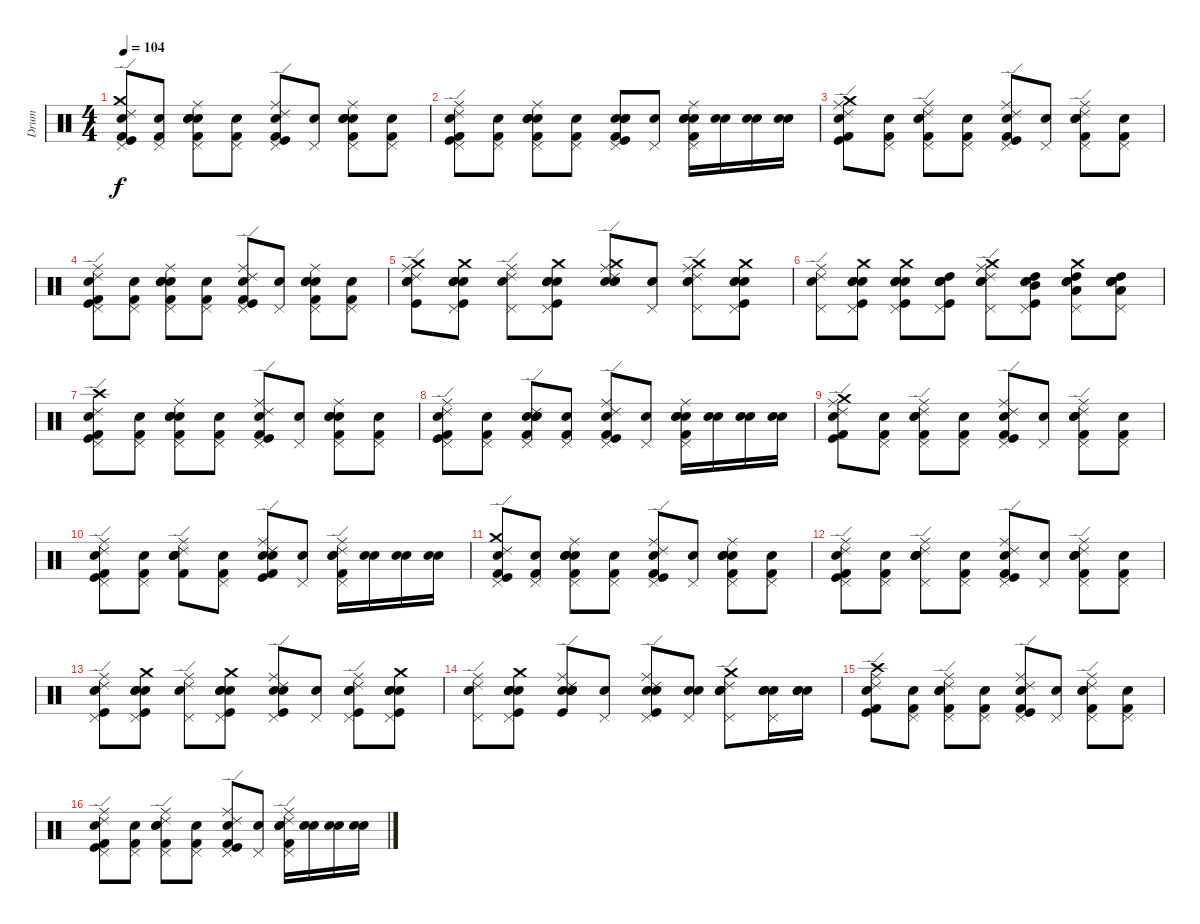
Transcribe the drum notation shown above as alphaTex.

\track ("Drum" "Drum") {instrument percussion}
\staff {score}
\articulation defaults
\ts (4 4)
\tempo 104
\clef neutral
\ks c
("Snare (hit)" "Kick (hit)" "Pedal Hi-Hat (hit)" "Crash medium (hit)" "Ride (edge) 2" "Kick (hit) 2").8{dy f} ("Snare (hit)" "Pedal Hi-Hat (hit)" "Kick (hit) 2").8 ("Snare (hit)" "Kick (hit) 2" "Electric Snare (hit)" "Snare (hit) 2" "Pedal Hi-Hat (hit)" "Ride (middle)").8 ("Snare (hit)" "Pedal Hi-Hat (hit)" "Kick (hit) 2").8 ("Snare (hit)" "Kick (hit)" "Pedal Hi-Hat (hit)" "Ride (edge) 2" "Ride (middle)" "Kick (hit) 2").8 ("Snare (hit)" "Pedal Hi-Hat (hit)").8 ("Snare (hit)" "Kick (hit) 2" "Snare (hit) 2" "Electric Snare (hit)" "Pedal Hi-Hat (hit)" "Ride (middle)").8 ("Snare (hit)" "Pedal Hi-Hat (hit)" "Kick (hit) 2").8 |
("Snare (hit)" "Pedal Hi-Hat (hit)" "Kick (hit)" "Ride (edge) 2" "Ride (middle)" "Kick (hit) 2").8 ("Snare (hit)" "Pedal Hi-Hat (hit)" "Kick (hit) 2").8 ("Snare (hit)" "Pedal Hi-Hat (hit)" "Snare (hit) 2" "Electric Snare (hit)" "Kick (hit) 2" "Ride (middle)").8 ("Snare (hit)" "Pedal Hi-Hat (hit)" "Kick (hit) 2").8 ("Snare (hit)" "Snare (hit) 2" "Electric Snare (hit)" "Pedal Hi-Hat (hit)" "Kick (hit)" "Kick (hit) 2").8 ("Snare (hit)" "Pedal Hi-Hat (hit)").8 ("Snare (hit)" "Pedal Hi-Hat (hit)" "Electric Snare (hit)" "Snare (hit) 2" "Kick (hit) 2" "Ride (middle)").16 ("Snare (hit)" "Snare (hit) 2").16 ("Snare (hit)" "Snare (hit) 2").16 ("Snare (hit)" "Snare (hit) 2").16 |
("Snare (hit)" "Kick (hit) 2" "Ride (middle)" "Ride (edge) 2" "Crash medium (hit)" "Kick (hit)").8 ("Snare (hit)" "Kick (hit) 2" "Pedal Hi-Hat (hit)").8 ("Snare (hit)" "Ride (middle)" "Ride (edge) 2" "Pedal Hi-Hat (hit)" "Snare (hit) 2" "Kick (hit) 2").8 ("Snare (hit)" "Kick (hit) 2" "Pedal Hi-Hat (hit)").8 ("Snare (hit)" "Kick (hit) 2" "Ride (middle)" "Ride (edge) 2" "Pedal Hi-Hat (hit)" "Kick (hit)").8 ("Snare (hit)" "Pedal Hi-Hat (hit)").8 ("Snare (hit)" "Ride (middle)" "Ride (edge) 2" "Pedal Hi-Hat (hit)" "Electric Snare (hit)" "Kick (hit) 2").8 ("Snare (hit)" "Kick (hit) 2" "Pedal Hi-Hat (hit)").8 |
("Snare (hit)" "Kick (hit)" "Pedal Hi-Hat (hit)" "Ride (edge) 2" "Ride (middle)" "Kick (hit) 2").8 ("Snare (hit)" "Pedal Hi-Hat (hit)" "Kick (hit) 2").8 ("Snare (hit)" "Kick (hit) 2" "Electric Snare (hit)" "Snare (hit) 2" "Pedal Hi-Hat (hit)" "Ride (middle)").8 ("Snare (hit)" "Pedal Hi-Hat (hit)" "Kick (hit) 2").8 ("Snare (hit)" "Kick (hit)" "Pedal Hi-Hat (hit)" "Ride (edge) 2" "Ride (middle)" "Kick (hit) 2").8 ("Snare (hit)" "Pedal Hi-Hat (hit)").8 ("Snare (hit)" "Kick (hit) 2" "Snare (hit) 2" "Electric Snare (hit)" "Pedal Hi-Hat (hit)" "Ride (middle)").8 ("Snare (hit)" "Pedal Hi-Hat (hit)" "Kick (hit) 2").8 |
("Snare (hit)" "Ride (middle)" "Electric Snare (hit)" "Crash medium (hit)" "Ride (edge) 2" "Kick (hit)").8 ("Snare (hit)" "Electric Snare (hit)" "Crash medium (hit)" "Kick (hit)" "Pedal Hi-Hat (hit)" "Snare (hit) 2").8 ("Snare (hit)" "Ride (middle)" "Ride (edge) 2" "Pedal Hi-Hat (hit)").8 ("Snare (hit)" "Electric Snare (hit)" "Crash medium (hit)" "Snare (hit) 2" "Pedal Hi-Hat (hit)" "Kick (hit)").8 ("Snare (hit)" "Ride (middle)" "Electric Snare (hit)" "Crash medium (hit)" "Ride (edge) 2" "Snare (hit) 2").8 ("Snare (hit)" "Pedal Hi-Hat (hit)").8 ("Snare (hit)" "Ride (middle)" "Electric Snare (hit)" "Crash medium (hit)" "Ride (edge) 2" "Pedal Hi-Hat (hit)").8 ("Snare (hit)" "Electric Snare (hit)" "Crash medium (hit)" "Pedal Hi-Hat (hit)" "Snare (hit) 2" "Kick (hit)").8 |
("Snare (hit)" "Pedal Hi-Hat (hit)" "Ride (middle)" "Ride (edge) 2").8 ("Snare (hit)" "Snare (hit) 2" "Pedal Hi-Hat (hit)" "Electric Snare (hit)" "Kick (hit)" "Crash medium (hit)").8 ("Snare (hit)" "Snare (hit) 2" "Crash medium (hit)" "Pedal Hi-Hat (hit)" "Electric Snare (hit)" "Kick (hit)").8 ("Snare (hit)" "Pedal Hi-Hat (hit)" "Electric Snare (hit)" "Snare (hit) 2" "High Tom (hit)" "Kick (hit)").8 ("Snare (hit)" "Ride (middle)" "Ride (edge) 2" "Pedal Hi-Hat (hit)" "Crash medium (hit)" "Snare (hit) 2").8 ("Snare (hit)" "Pedal Hi-Hat (hit)" "High Tom (hit)" "Mid Tom (hit)" "Snare (hit) 2" "Kick (hit)").8 ("Snare (hit)" "Crash medium (hit)" "Electric Snare (hit)" "Low Tom (hit)" "Pedal Hi-Hat (hit)" "High Tom (hit)").8 ("Snare (hit)" "Pedal Hi-Hat (hit)" "Snare (hit) 2" "Low Tom (hit)" "Electric Snare (hit)" "High Tom (hit)").8 |
("Snare (hit)" "Kick (hit)" "Pedal Hi-Hat (hit)" "Crash high (hit)" "Ride (edge) 2" "Kick (hit) 2").8 ("Snare (hit)" "Pedal Hi-Hat (hit)" "Kick (hit) 2").8 ("Snare (hit)" "Kick (hit) 2" "Electric Snare (hit)" "Snare (hit) 2" "Pedal Hi-Hat (hit)" "Ride (middle)").8 ("Snare (hit)" "Pedal Hi-Hat (hit)" "Kick (hit) 2").8 ("Snare (hit)" "Kick (hit)" "Pedal Hi-Hat (hit)" "Ride (edge) 2" "Ride (middle)" "Kick (hit) 2").8 ("Snare (hit)" "Pedal Hi-Hat (hit)").8 ("Snare (hit)" "Kick (hit) 2" "Snare (hit) 2" "Electric Snare (hit)" "Pedal Hi-Hat (hit)" "Ride (middle)").8 ("Snare (hit)" "Pedal Hi-Hat (hit)" "Kick (hit) 2").8 |
("Snare (hit)" "Kick (hit)" "Ride (middle)" "Ride (edge) 2" "Kick (hit) 2" "Pedal Hi-Hat (hit)").8 ("Snare (hit)" "Kick (hit) 2" "Pedal Hi-Hat (hit)").8 ("Snare (hit)" "Snare (hit) 2" "Kick (hit) 2" "Pedal Hi-Hat (hit)" "Electric Snare (hit)" "Ride (edge) 2").8 ("Snare (hit)" "Kick (hit) 2" "Pedal Hi-Hat (hit)").8 ("Snare (hit)" "Ride (edge) 2" "Ride (middle)" "Kick (hit)" "Pedal Hi-Hat (hit)" "Kick (hit) 2").8 ("Snare (hit)" "Pedal Hi-Hat (hit)").8 ("Snare (hit)" "Snare (hit) 2" "Kick (hit) 2" "Electric Snare (hit)" "Pedal Hi-Hat (hit)" "Ride (middle)").16 ("Snare (hit)" "Snare (hit) 2").16 ("Snare (hit)" "Snare (hit) 2").16 ("Snare (hit)" "Snare (hit) 2").16 |
("Snare (hit)" "Kick (hit) 2" "Ride (middle)" "Ride (edge) 2" "Crash medium (hit)" "Kick (hit)").8 ("Snare (hit)" "Kick (hit) 2" "Pedal Hi-Hat (hit)").8 ("Snare (hit)" "Ride (middle)" "Ride (edge) 2" "Pedal Hi-Hat (hit)" "Snare (hit) 2" "Kick (hit) 2").8 ("Snare (hit)" "Kick (hit) 2" "Pedal Hi-Hat (hit)").8 ("Snare (hit)" "Kick (hit) 2" "Ride (middle)" "Ride (edge) 2" "Pedal Hi-Hat (hit)" "Kick (hit)").8 ("Snare (hit)" "Pedal Hi-Hat (hit)").8 ("Snare (hit)" "Ride (middle)" "Ride (edge) 2" "Pedal Hi-Hat (hit)" "Electric Snare (hit)" "Kick (hit) 2").8 ("Snare (hit)" "Kick (hit) 2" "Pedal Hi-Hat (hit)").8 |
("Snare (hit)" "Ride (middle)" "Kick (hit)" "Ride (edge) 2" "Pedal Hi-Hat (hit)" "Kick (hit) 2").8 ("Snare (hit)" "Pedal Hi-Hat (hit)" "Kick (hit) 2").8 ("Snare (hit)" "Ride (edge) 2" "Electric Snare (hit)" "Ride (middle)" "Kick (hit) 2" "Snare (hit) 2").8 ("Snare (hit)" "Pedal Hi-Hat (hit)" "Kick (hit) 2").8 ("Snare (hit)" "Ride (edge) 2" "Kick (hit)" "Ride (middle)" "Kick (hit) 2" "Snare (hit) 2").8 ("Snare (hit)" "Pedal Hi-Hat (hit)").8 ("Snare (hit)" "Kick (hit) 2" "Snare (hit) 2" "Ride (edge) 2" "Ride (middle)" "Pedal Hi-Hat (hit)").16 ("Snare (hit)" "Snare (hit) 2").16 ("Snare (hit)" "Snare (hit) 2").16 ("Snare (hit)" "Snare (hit) 2").16 |
("Snare (hit)" "Kick (hit)" "Pedal Hi-Hat (hit)" "Crash medium (hit)" "Ride (edge) 2" "Kick (hit) 2").8 ("Snare (hit)" "Pedal Hi-Hat (hit)" "Kick (hit) 2").8 ("Snare (hit)" "Kick (hit) 2" "Electric Snare (hit)" "Snare (hit) 2" "Pedal Hi-Hat (hit)" "Ride (middle)").8 ("Snare (hit)" "Pedal Hi-Hat (hit)" "Kick (hit) 2").8 ("Snare (hit)" "Kick (hit)" "Pedal Hi-Hat (hit)" "Ride (edge) 2" "Ride (middle)" "Kick (hit) 2").8 ("Snare (hit)" "Pedal Hi-Hat (hit)").8 ("Snare (hit)" "Kick (hit) 2" "Snare (hit) 2" "Electric Snare (hit)" "Pedal Hi-Hat (hit)" "Ride (middle)").8 ("Snare (hit)" "Pedal Hi-Hat (hit)" "Kick (hit) 2").8 |
("Snare (hit)" "Ride (middle)" "Kick (hit)" "Ride (edge) 2" "Pedal Hi-Hat (hit)" "Kick (hit) 2").8 ("Snare (hit)" "Pedal Hi-Hat (hit)" "Kick (hit) 2").8 ("Snare (hit)" "Ride (edge) 2" "Snare (hit) 2" "Ride (middle)" "Pedal Hi-Hat (hit)" "Electric Snare (hit)").8 ("Snare (hit)" "Pedal Hi-Hat (hit)" "Kick (hit) 2").8 ("Snare (hit)" "Ride (edge) 2" "Pedal Hi-Hat (hit)" "Ride (middle)" "Kick (hit) 2" "Kick (hit)").8 ("Snare (hit)" "Pedal Hi-Hat (hit)").8 ("Snare (hit)" "Pedal Hi-Hat (hit)" "Kick (hit) 2" "Ride (edge) 2" "Electric Snare (hit)" "Ride (middle)").8 ("Snare (hit)" "Pedal Hi-Hat (hit)" "Kick (hit) 2").8 |
("Snare (hit)" "Kick (hit)" "Snare (hit) 2" "Pedal Hi-Hat (hit)" "Ride (edge) 2" "Ride (middle)").8 ("Snare (hit)" "Snare (hit) 2" "Pedal Hi-Hat (hit)" "Kick (hit)" "Crash medium (hit)" "Electric Snare (hit)").8 ("Snare (hit)" "Pedal Hi-Hat (hit)" "Ride (edge) 2" "Ride (middle)").8 ("Snare (hit)" "Kick (hit)" "Pedal Hi-Hat (hit)" "Snare (hit) 2" "Crash medium (hit)" "Electric Snare (hit)").8 ("Snare (hit)" "Snare (hit) 2" "Pedal Hi-Hat (hit)" "Kick (hit)" "Ride (edge) 2" "Ride (middle)").8 ("Snare (hit)" "Pedal Hi-Hat (hit)").8 ("Snare (hit)" "Pedal Hi-Hat (hit)" "Kick (hit)" "Snare (hit) 2" "Ride (edge) 2" "Ride (middle)").8 ("Snare (hit)" "Kick (hit)" "Snare (hit) 2" "Pedal Hi-Hat (hit)" "Crash medium (hit)" "Electric Snare (hit)").8 |
("Snare (hit)" "Ride (middle)" "Pedal Hi-Hat (hit)" "Ride (edge) 2").8 ("Snare (hit)" "Electric Snare (hit)" "Crash medium (hit)" "Pedal Hi-Hat (hit)" "Snare (hit) 2" "Kick (hit)").8 ("Snare (hit)" "Ride (middle)" "Electric Snare (hit)" "Ride (edge) 2" "Snare (hit) 2" "Kick (hit)").8 ("Snare (hit)" "Pedal Hi-Hat (hit)").8 ("Snare (hit)" "Ride (edge) 2" "Snare (hit) 2" "Kick (hit)" "Pedal Hi-Hat (hit)" "Ride (middle)").8 ("Snare (hit)" "Snare (hit) 2" "Pedal Hi-Hat (hit)").8 ("Snare (hit)" "Snare (hit) 2" "Pedal Hi-Hat (hit)" "Crash medium (hit)" "Ride (edge) 2" "Electric Snare (hit)").8 ("Snare (hit)" "Snare (hit) 2" "Pedal Hi-Hat (hit)" "Electric Snare (hit)").16 ("Snare (hit)" "Snare (hit) 2" "Electric Snare (hit)").16 |
("Snare (hit)" "Kick (hit) 2" "Ride (middle)" "Ride (edge) 2" "Crash high (hit)" "Kick (hit)").8 ("Snare (hit)" "Kick (hit) 2" "Pedal Hi-Hat (hit)").8 ("Snare (hit)" "Ride (middle)" "Ride (edge) 2" "Pedal Hi-Hat (hit)" "Snare (hit) 2" "Kick (hit) 2").8 ("Snare (hit)" "Kick (hit) 2" "Pedal Hi-Hat (hit)").8 ("Snare (hit)" "Kick (hit) 2" "Ride (middle)" "Ride (edge) 2" "Pedal Hi-Hat (hit)" "Kick (hit)").8 ("Snare (hit)" "Pedal Hi-Hat (hit)").8 ("Snare (hit)" "Ride (middle)" "Ride (edge) 2" "Pedal Hi-Hat (hit)" "Electric Snare (hit)" "Kick (hit) 2").8 ("Snare (hit)" "Kick (hit) 2" "Pedal Hi-Hat (hit)").8 |
("Snare (hit)" "Kick (hit) 2" "Ride (middle)" "Ride (edge) 2" "Kick (hit)" "Pedal Hi-Hat (hit)").8 ("Snare (hit)" "Kick (hit) 2" "Pedal Hi-Hat (hit)").8 ("Snare (hit)" "Ride (middle)" "Ride (edge) 2" "Kick (hit) 2" "Electric Snare (hit)" "Pedal Hi-Hat (hit)").8 ("Snare (hit)" "Kick (hit) 2" "Pedal Hi-Hat (hit)").8 ("Snare (hit)" "Kick (hit) 2" "Ride (middle)" "Ride (edge) 2" "Kick (hit)" "Pedal Hi-Hat (hit)").8 ("Snare (hit)" "Pedal Hi-Hat (hit)").8 ("Snare (hit)" "Ride (middle)" "Ride (edge) 2" "Kick (hit) 2" "Snare (hit) 2" "Pedal Hi-Hat (hit)").16 ("Snare (hit)" "Snare (hit) 2").16 ("Snare (hit)" "Snare (hit) 2").16 ("Snare (hit)" "Snare (hit) 2").16
